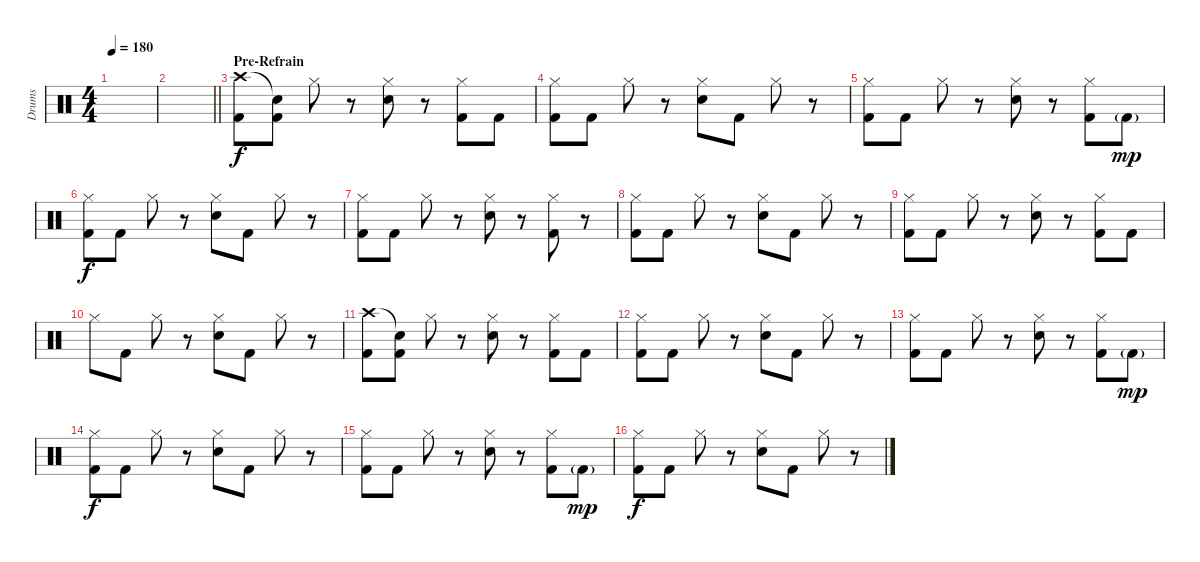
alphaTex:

\track ("Drums" "Drums") {instrument percussion}
\staff {score}
\articulation defaults
\ts (4 4)
\tempo 180
\clef neutral
\ks c
|
\barLineRight lightlight
|
\section ("" "Pre-Refrain")
("Crash high (hit)" "Kick (hit) 2").8 ("Snare (hit)"{t} "Kick (hit) 2").8 "Hi-Hat (closed)".8 r.8 ("Hi-Hat (closed)" "Snare (hit) 2").8 r.8 ("Hi-Hat (closed)" "Kick (hit) 2").8 "Kick (hit) 2".8 |
("Hi-Hat (closed)" "Kick (hit) 2").8 "Kick (hit) 2".8 "Hi-Hat (closed)".8 r.8 ("Hi-Hat (closed)" "Snare (hit) 2").8 "Kick (hit) 2".8 "Hi-Hat (closed)".8 r.8 |
("Hi-Hat (closed)" "Kick (hit) 2").8 "Kick (hit) 2".8 "Hi-Hat (closed)".8 r.8 ("Hi-Hat (closed)" "Snare (hit) 2").8 r.8 ("Hi-Hat (closed)" "Kick (hit) 2").8 "Kick (hit) 2"{g}.8{dy mp} |
("Hi-Hat (closed)" "Kick (hit) 2").8{dy f} "Kick (hit) 2".8 "Hi-Hat (closed)".8 r.8 ("Hi-Hat (closed)" "Snare (hit) 2").8 "Kick (hit) 2".8 "Hi-Hat (closed)".8 r.8 |
("Hi-Hat (closed)" "Kick (hit) 2").8 "Kick (hit) 2".8 "Hi-Hat (closed)".8 r.8 ("Hi-Hat (closed)" "Snare (hit) 2").8 r.8 ("Hi-Hat (closed)" "Kick (hit) 2").8 r.8 |
("Hi-Hat (closed)" "Kick (hit) 2").8 "Kick (hit) 2".8 "Hi-Hat (closed)".8 r.8 ("Hi-Hat (closed)" "Snare (hit) 2").8 "Kick (hit) 2".8 "Hi-Hat (closed)".8 r.8 |
("Hi-Hat (closed)" "Kick (hit) 2").8 "Kick (hit) 2".8 "Hi-Hat (closed)".8 r.8 ("Hi-Hat (closed)" "Snare (hit) 2").8 r.8 ("Hi-Hat (closed)" "Kick (hit) 2").8 "Kick (hit) 2".8 |
"Hi-Hat (closed)".8 "Kick (hit) 2".8 "Hi-Hat (closed)".8 r.8 ("Hi-Hat (closed)" "Snare (hit) 2").8 "Kick (hit) 2".8 "Hi-Hat (closed)".8 r.8 |
("Crash high (hit)" "Kick (hit) 2").8 ("Snare (hit)"{t} "Kick (hit) 2").8 "Hi-Hat (closed)".8 r.8 ("Hi-Hat (closed)" "Snare (hit) 2").8 r.8 ("Hi-Hat (closed)" "Kick (hit) 2").8 "Kick (hit) 2".8 |
("Hi-Hat (closed)" "Kick (hit) 2").8 "Kick (hit) 2".8 "Hi-Hat (closed)".8 r.8 ("Hi-Hat (closed)" "Snare (hit) 2").8 "Kick (hit) 2".8 "Hi-Hat (closed)".8 r.8 |
("Hi-Hat (closed)" "Kick (hit) 2").8 "Kick (hit) 2".8 "Hi-Hat (closed)".8 r.8 ("Hi-Hat (closed)" "Snare (hit) 2").8 r.8 ("Hi-Hat (closed)" "Kick (hit) 2").8 "Kick (hit) 2"{g}.8{dy mp} |
("Hi-Hat (closed)" "Kick (hit) 2").8{dy f} "Kick (hit) 2".8 "Hi-Hat (closed)".8 r.8 ("Hi-Hat (closed)" "Snare (hit) 2").8 "Kick (hit) 2".8 "Hi-Hat (closed)".8 r.8 |
("Hi-Hat (closed)" "Kick (hit) 2").8 "Kick (hit) 2".8 "Hi-Hat (closed)".8 r.8 ("Hi-Hat (closed)" "Snare (hit) 2").8 r.8 ("Hi-Hat (closed)" "Kick (hit) 2").8 "Kick (hit) 2"{g}.8{dy mp} |
("Hi-Hat (closed)" "Kick (hit) 2").8{dy f} "Kick (hit) 2".8 "Hi-Hat (closed)".8 r.8 ("Hi-Hat (closed)" "Snare (hit) 2").8 "Kick (hit) 2".8 "Hi-Hat (closed)".8 r.8
